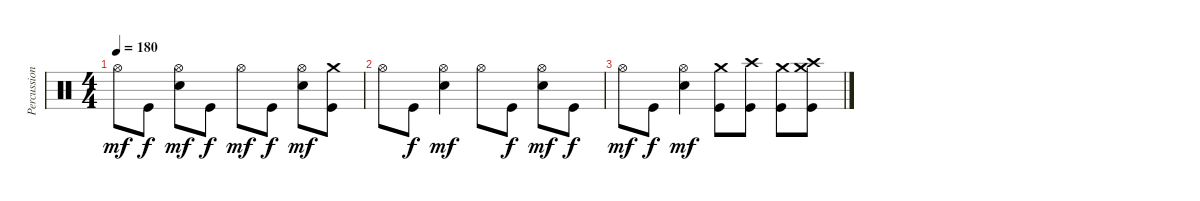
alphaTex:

\track ("Percussions" "Percussion") {instrument percussion}
\staff {score}
\articulation defaults
\ts (4 4)
\tempo 180
\clef neutral
\ks c "Hi-Hat (open)".8{dy mf} "Kick (hit)".8{dy f}
("Electric Snare (hit)" "Hi-Hat (open)").8{dy mf} "Kick (hit)".8{dy f} "Hi-Hat (open)".8{dy mf} "Kick (hit)".8{dy f} ("Electric Snare (hit)" "Hi-Hat (open)").8{dy mf} ("Kick (hit)" "Crash medium (hit)").8 |
"Hi-Hat (open)".8 "Kick (hit)".8{dy f} ("Electric Snare (hit)" "Hi-Hat (open)").4{dy mf} "Hi-Hat (open)".8 "Kick (hit)".8{dy f} ("Electric Snare (hit)" "Hi-Hat (open)").8{dy mf} "Kick (hit)".8{dy f} |
"Hi-Hat (open)".8{dy mf} "Kick (hit)".8{dy f} ("Electric Snare (hit)" "Hi-Hat (open)").4{dy mf} ("Kick (hit)" "Crash medium (hit)").8 ("Kick (hit)" "Crash high (hit)").8 ("Kick (hit)" "Crash medium (hit)").8 ("Kick (hit)" "Crash medium (hit)" "Crash high (hit)").8
